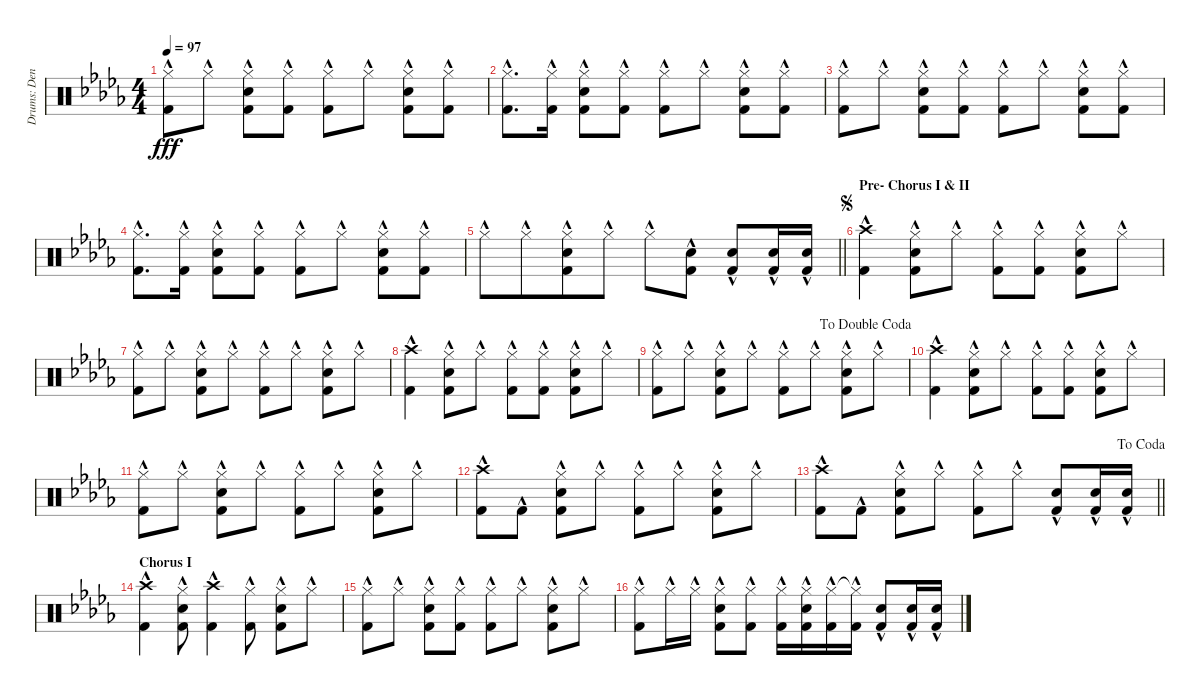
\track ("Drums: Denny" "Drums: Den") {instrument percussion}
\staff {score}
\articulation defaults
\ts (4 4)
\tempo 97
\clef neutral
\ks db
("Hi-Hat (closed)"{hac} "Kick (hit) 2"{hac}).8{dy fff} "Hi-Hat (closed)"{hac}.8 ("Hi-Hat (closed)"{hac} "Snare (hit) 2"{hac} "Kick (hit) 2"{hac}).8 ("Hi-Hat (closed)"{hac} "Kick (hit) 2"{hac}).8 ("Hi-Hat (closed)"{hac} "Kick (hit) 2"{hac}).8 "Hi-Hat (closed)"{hac}.8 ("Hi-Hat (closed)"{hac} "Snare (hit) 2"{hac} "Kick (hit) 2"{hac}).8 ("Hi-Hat (closed)"{hac} "Kick (hit) 2"{hac}).8 |
("Hi-Hat (closed)"{hac} "Kick (hit) 2"{hac}).8{d} ("Hi-Hat (closed)"{hac} "Kick (hit) 2"{hac}).16 ("Hi-Hat (closed)"{hac} "Snare (hit) 2"{hac} "Kick (hit) 2"{hac}).8 ("Hi-Hat (closed)"{hac} "Kick (hit) 2"{hac}).8 ("Hi-Hat (closed)"{hac} "Kick (hit) 2"{hac}).8 "Hi-Hat (closed)"{hac}.8 ("Hi-Hat (closed)"{hac} "Snare (hit) 2"{hac} "Kick (hit) 2"{hac}).8 ("Hi-Hat (closed)"{hac} "Kick (hit) 2"{hac}).8 |
("Hi-Hat (closed)"{hac} "Kick (hit) 2"{hac}).8 "Hi-Hat (closed)"{hac}.8 ("Hi-Hat (closed)"{hac} "Snare (hit) 2"{hac} "Kick (hit) 2"{hac}).8 ("Hi-Hat (closed)"{hac} "Kick (hit) 2"{hac}).8 ("Hi-Hat (closed)"{hac} "Kick (hit) 2"{hac}).8 "Hi-Hat (closed)"{hac}.8 ("Hi-Hat (closed)"{hac} "Snare (hit) 2"{hac} "Kick (hit) 2"{hac}).8 ("Hi-Hat (closed)"{hac} "Kick (hit) 2"{hac}).8 |
("Hi-Hat (closed)"{hac} "Kick (hit) 2"{hac}).8{d} ("Hi-Hat (closed)"{hac} "Kick (hit) 2"{hac}).16 ("Hi-Hat (closed)"{hac} "Snare (hit) 2"{hac} "Kick (hit) 2"{hac}).8 ("Hi-Hat (closed)"{hac} "Kick (hit) 2"{hac}).8 ("Hi-Hat (closed)"{hac} "Kick (hit) 2"{hac}).8 "Hi-Hat (closed)"{hac}.8 ("Hi-Hat (closed)"{hac} "Snare (hit) 2"{hac} "Kick (hit) 2"{hac}).8 ("Hi-Hat (closed)"{hac} "Kick (hit) 2"{hac}).8 |
\barLineRight lightlight "Hi-Hat (closed)"{hac}.8 "Hi-Hat (closed)"{hac}.8{beam merge}
("Hi-Hat (closed)"{hac} "Snare (hit) 2"{hac} "Kick (hit) 2"{hac}).8 "Hi-Hat (closed)"{hac}.8 "Hi-Hat (closed)"{hac}.8 ("Snare (hit) 2"{hac} "Kick (hit) 2"{hac}).8 ("Snare (hit) 2"{hac} "Kick (hit) 2"{hac}).8 ("Snare (hit) 2"{hac} "Kick (hit) 2"{hac}).16 ("Snare (hit) 2"{hac} "Kick (hit) 2"{hac}).16 |
\section ("" "Pre- Chorus I & II")
\jump segno
("Crash high (hit)"{hac} "Kick (hit) 2"{hac}).4 ("Hi-Hat (closed)"{hac} "Snare (hit) 2"{hac} "Kick (hit) 2"{hac}).8 "Hi-Hat (closed)"{hac}.8 ("Hi-Hat (closed)"{hac} "Kick (hit) 2"{hac}).8 ("Hi-Hat (closed)"{hac} "Kick (hit) 2"{hac}).8 ("Hi-Hat (closed)"{hac} "Snare (hit) 2"{hac} "Kick (hit) 2"{hac}).8 "Hi-Hat (closed)"{hac}.8 |
("Hi-Hat (closed)"{hac} "Kick (hit) 2"{hac}).8 "Hi-Hat (closed)"{hac}.8 ("Hi-Hat (closed)"{hac} "Snare (hit) 2"{hac} "Kick (hit) 2"{hac}).8 "Hi-Hat (closed)"{hac}.8 ("Hi-Hat (closed)"{hac} "Kick (hit) 2"{hac}).8 "Hi-Hat (closed)"{hac}.8 ("Hi-Hat (closed)"{hac} "Snare (hit) 2"{hac} "Kick (hit) 2"{hac}).8 "Hi-Hat (closed)"{hac}.8 |
("Crash high (hit)"{hac} "Kick (hit) 2"{hac}).4 ("Hi-Hat (closed)"{hac} "Snare (hit) 2"{hac} "Kick (hit) 2"{hac}).8 "Hi-Hat (closed)"{hac}.8 ("Hi-Hat (closed)"{hac} "Kick (hit) 2"{hac}).8 ("Hi-Hat (closed)"{hac} "Kick (hit) 2"{hac}).8 ("Hi-Hat (closed)"{hac} "Snare (hit) 2"{hac} "Kick (hit) 2"{hac}).8 "Hi-Hat (closed)"{hac}.8 |
\jump dadoublecoda
("Hi-Hat (closed)"{hac} "Kick (hit) 2"{hac}).8 "Hi-Hat (closed)"{hac}.8 ("Hi-Hat (closed)"{hac} "Snare (hit) 2"{hac} "Kick (hit) 2"{hac}).8 "Hi-Hat (closed)"{hac}.8 ("Hi-Hat (closed)"{hac} "Kick (hit) 2"{hac}).8 "Hi-Hat (closed)"{hac}.8 ("Hi-Hat (closed)"{hac} "Snare (hit) 2"{hac} "Kick (hit) 2"{hac}).8 "Hi-Hat (closed)"{hac}.8 |
("Crash high (hit)"{hac} "Kick (hit) 2"{hac}).4 ("Hi-Hat (closed)"{hac} "Snare (hit) 2"{hac} "Kick (hit) 2"{hac}).8 "Hi-Hat (closed)"{hac}.8 ("Hi-Hat (closed)"{hac} "Kick (hit) 2"{hac}).8 ("Hi-Hat (closed)"{hac} "Kick (hit) 2"{hac}).8 ("Hi-Hat (closed)"{hac} "Snare (hit) 2"{hac} "Kick (hit) 2"{hac}).8 "Hi-Hat (closed)"{hac}.8 |
("Hi-Hat (closed)"{hac} "Kick (hit) 2"{hac}).8 "Hi-Hat (closed)"{hac}.8 ("Hi-Hat (closed)"{hac} "Snare (hit) 2"{hac} "Kick (hit) 2"{hac}).8 "Hi-Hat (closed)"{hac}.8 ("Hi-Hat (closed)"{hac} "Kick (hit) 2"{hac}).8 "Hi-Hat (closed)"{hac}.8 ("Hi-Hat (closed)"{hac} "Snare (hit) 2"{hac} "Kick (hit) 2"{hac}).8 "Hi-Hat (closed)"{hac}.8 |
("Crash high (hit)"{hac} "Kick (hit) 2"{hac}).8 "Kick (hit) 2"{hac}.8 ("Hi-Hat (closed)"{hac} "Snare (hit) 2"{hac} "Kick (hit) 2"{hac}).8 "Hi-Hat (closed)"{hac}.8 ("Hi-Hat (closed)"{hac} "Kick (hit) 2"{hac}).8 "Hi-Hat (closed)"{hac}.8 ("Hi-Hat (closed)"{hac} "Snare (hit) 2"{hac} "Kick (hit) 2"{hac}).8 "Hi-Hat (closed)"{hac}.8 |
\jump dacoda
\barLineRight lightlight
("Crash high (hit)"{hac} "Kick (hit) 2"{hac}).8 "Kick (hit) 2"{hac}.8 ("Hi-Hat (closed)"{hac} "Snare (hit) 2"{hac} "Kick (hit) 2"{hac}).8 "Hi-Hat (closed)"{hac}.8 ("Hi-Hat (closed)"{hac} "Kick (hit) 2"{hac}).8 "Hi-Hat (closed)"{hac}.8 ("Snare (hit) 2"{hac} "Kick (hit) 2"{hac}).8 ("Snare (hit) 2"{hac} "Kick (hit) 2"{hac}).16 ("Snare (hit) 2"{hac} "Kick (hit) 2"{hac}).16 |
\section ("" "Chorus I")
("Crash high (hit)"{hac} "Kick (hit) 2"{hac}).4 ("Hi-Hat (closed)"{hac} "Snare (hit) 2"{hac} "Kick (hit) 2"{hac}).8 ("Crash high (hit)"{hac} "Kick (hit) 2"{hac}).4 ("Hi-Hat (closed)"{hac} "Kick (hit) 2"{hac}).8 ("Hi-Hat (closed)"{hac} "Snare (hit) 2"{hac} "Kick (hit) 2"{hac}).8 "Hi-Hat (closed)"{hac}.8 |
("Hi-Hat (closed)"{hac} "Kick (hit) 2"{hac}).8 "Hi-Hat (closed)"{hac}.8 ("Hi-Hat (closed)"{hac} "Snare (hit) 2"{hac} "Kick (hit) 2"{hac}).8 ("Hi-Hat (closed)"{hac} "Kick (hit) 2"{hac}).8 ("Hi-Hat (closed)"{hac} "Kick (hit) 2"{hac}).8 "Hi-Hat (closed)"{hac}.8 ("Hi-Hat (closed)"{hac} "Snare (hit) 2"{hac} "Kick (hit) 2"{hac}).8 "Hi-Hat (closed)"{hac}.8 |
("Hi-Hat (closed)"{hac} "Kick (hit) 2"{hac}).8 "Hi-Hat (closed)"{hac}.16 "Hi-Hat (closed)"{hac}.16 ("Hi-Hat (closed)"{hac} "Snare (hit) 2"{hac} "Kick (hit) 2"{hac}).8 ("Hi-Hat (closed)"{hac} "Kick (hit) 2"{hac}).8 ("Hi-Hat (closed)"{hac} "Kick (hit) 2"{hac}).16 ("Hi-Hat (closed)"{hac} "Snare (hit) 2"{hac} "Kick (hit) 2"{hac}).16 ("Hi-Hat (closed)"{hac} "Kick (hit) 2"{hac}).16 ("Hi-Hat (closed)"{t} "Kick (hit) 2"{hac}).16 ("Snare (hit) 2"{hac} "Kick (hit) 2"{hac}).8 ("Snare (hit) 2"{hac} "Kick (hit) 2"{hac}).16 ("Snare (hit) 2"{hac} "Kick (hit) 2"{hac}).16
